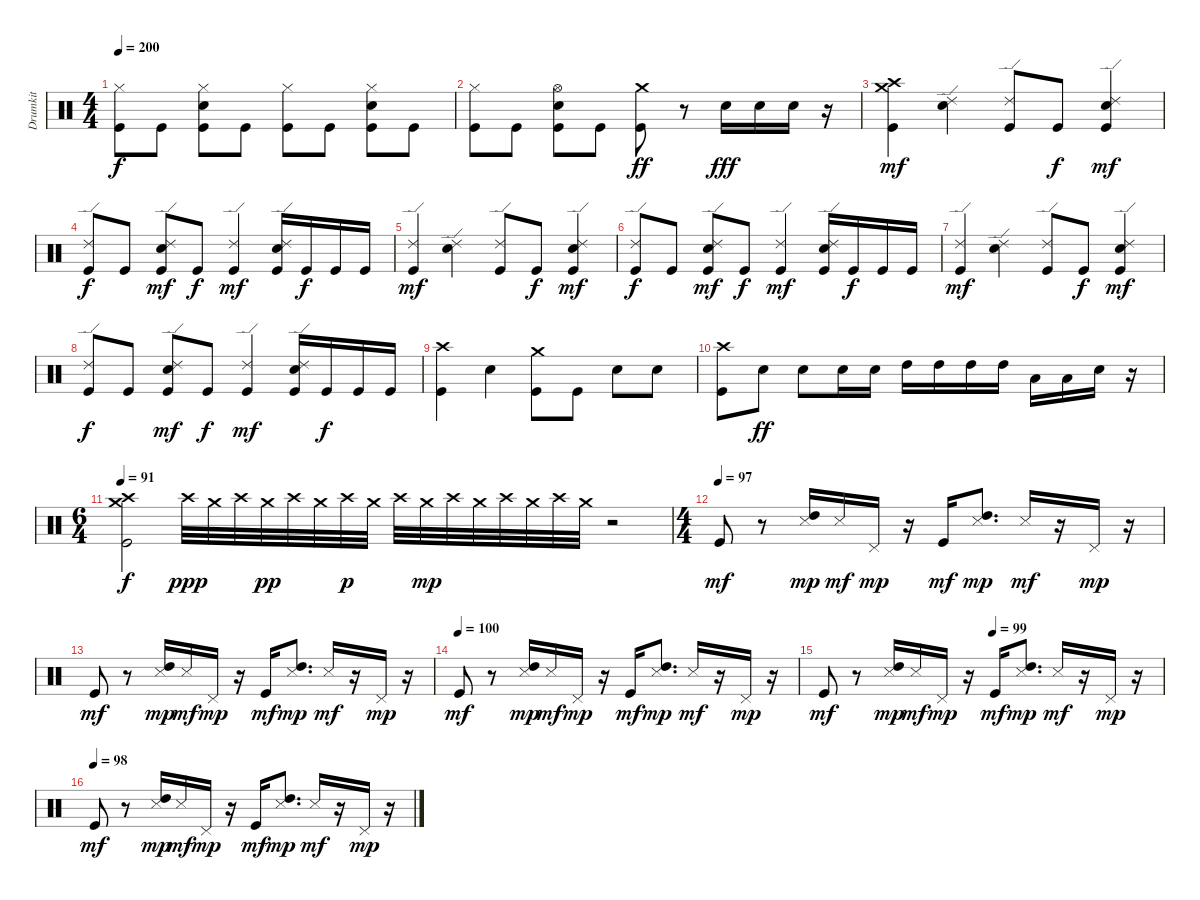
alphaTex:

\track ("Drumkit" "Drumkit") {instrument percussion}
\staff {score}
\articulation defaults
\ts (4 4)
\tempo 200
\clef neutral
\ks c
("Hi-Hat (closed)" "Kick (hit)").8{dy f} "Kick (hit)".8 ("Hi-Hat (closed)" "Snare (hit) 2" "Kick (hit)").8 "Kick (hit)".8 ("Hi-Hat (closed)" "Kick (hit)").8 "Kick (hit)".8 ("Hi-Hat (closed)" "Snare (hit) 2" "Kick (hit)").8 "Kick (hit)".8 |
("Hi-Hat (closed)" "Kick (hit)").8 "Kick (hit)".8 ("Hi-Hat (open)" "Snare (hit) 2" "Kick (hit)").8 "Kick (hit)".8 ("Crash medium (hit)" "Kick (hit)").8{dy ff} r.8 "Snare (hit) 2".16{dy fff} "Snare (hit) 2".16 "Snare (hit) 2".16 r.16 |
("Crash high (hit)" "Crash medium (hit)" "Kick (hit)").4{dy mf} ("Ride (edge) 2" "Snare (hit) 2").4 ("Ride (edge) 2" "Kick (hit)").8 "Kick (hit)".8{dy f} ("Ride (edge) 2" "Snare (hit) 2" "Kick (hit)").4{dy mf} |
("Ride (edge) 2" "Kick (hit)").8{dy f} "Kick (hit)".8 ("Ride (edge) 2" "Snare (hit) 2" "Kick (hit)").8{dy mf} "Kick (hit)".8{dy f} ("Ride (edge) 2" "Kick (hit)").4{dy mf} ("Ride (edge) 2" "Snare (hit) 2" "Kick (hit)").16 "Kick (hit)".16{dy f} "Kick (hit)".16 "Kick (hit)".16 |
("Ride (edge) 2" "Kick (hit)").4{dy mf} ("Ride (edge) 2" "Snare (hit) 2").4 ("Ride (edge) 2" "Kick (hit)").8 "Kick (hit)".8{dy f} ("Ride (edge) 2" "Snare (hit) 2" "Kick (hit)").4{dy mf} |
("Ride (edge) 2" "Kick (hit)").8{dy f} "Kick (hit)".8 ("Ride (edge) 2" "Snare (hit) 2" "Kick (hit)").8{dy mf} "Kick (hit)".8{dy f} ("Ride (edge) 2" "Kick (hit)").4{dy mf} ("Ride (edge) 2" "Snare (hit) 2" "Kick (hit)").16 "Kick (hit)".16{dy f} "Kick (hit)".16 "Kick (hit)".16 |
("Ride (edge) 2" "Kick (hit)").4{dy mf} ("Ride (edge) 2" "Snare (hit) 2").4 ("Ride (edge) 2" "Kick (hit)").8 "Kick (hit)".8{dy f} ("Ride (edge) 2" "Snare (hit) 2" "Kick (hit)").4{dy mf} |
("Ride (edge) 2" "Kick (hit)").8{dy f} "Kick (hit)".8 ("Ride (edge) 2" "Snare (hit) 2" "Kick (hit)").8{dy mf} "Kick (hit)".8{dy f} ("Ride (edge) 2" "Kick (hit)").4{dy mf} ("Ride (edge) 2" "Snare (hit) 2" "Kick (hit)").16 "Kick (hit)".16{dy f} "Kick (hit)".16 "Kick (hit)".16 |
("Crash high (hit)" "Kick (hit)").4 "Snare (hit) 2".4 ("Crash medium (hit)" "Kick (hit)").8 "Kick (hit)".8 "Snare (hit) 2".8 "Snare (hit) 2".8 |
("Crash high (hit)" "Kick (hit)").8 "Snare (hit) 2".8{dy ff} "Snare (hit) 2".8 "Snare (hit) 2".16 "Snare (hit) 2".16 "High Tom (hit)".16 "High Tom (hit)".16 "High Tom (hit)".16 "High Tom (hit)".16 "Low Tom (hit)".16 "Low Tom (hit)".16 "Snare (hit) 2".16 r.16 |
\ts (6 4)
\tempo 91
("Crash high (hit)" "Crash medium (hit)" "Kick (hit)").2{dy f} "Crash high (hit)".32{dy ppp} "Crash medium (hit)".32 "Crash high (hit)".32 "Crash medium (hit)".32{dy pp} "Crash high (hit)".32 "Crash medium (hit)".32 "Crash high (hit)".32{dy p} "Crash medium (hit)".32 "Crash high (hit)".32 "Crash medium (hit)".32{dy mp} "Crash high (hit)".32 "Crash medium (hit)".32 "Crash high (hit)".32 "Crash medium (hit)".32 "Crash high (hit)".32 "Crash medium (hit)".32 r.2 |
\ts (4 4)
\tempo (97)
"Kick (hit)".8{dy mf} r.8 ("High Tom (hit)" "Snare (side stick) 3").16{dy mp} "Snare (side stick) 3".16{dy mf} "Pedal Hi-Hat (hit)".16{dy mp} r.16 "Kick (hit)".16{dy mf} ("High Tom (hit)" "Snare (side stick) 3").8{d dy mp} "Snare (side stick) 3".16{dy mf} r.16 "Pedal Hi-Hat (hit)".16{dy mp} r.16 |
"Kick (hit)".8{dy mf} r.8 ("High Tom (hit)" "Snare (side stick) 3").16{dy mp} "Snare (side stick) 3".16{dy mf} "Pedal Hi-Hat (hit)".16{dy mp} r.16 "Kick (hit)".16{dy mf} ("High Tom (hit)" "Snare (side stick) 3").8{d dy mp} "Snare (side stick) 3".16{dy mf} r.16 "Pedal Hi-Hat (hit)".16{dy mp} r.16 |
\tempo (100)
"Kick (hit)".8{dy mf} r.8 ("High Tom (hit)" "Snare (side stick) 3").16{dy mp} "Snare (side stick) 3".16{dy mf} "Pedal Hi-Hat (hit)".16{dy mp} r.16 "Kick (hit)".16{dy mf} ("High Tom (hit)" "Snare (side stick) 3").8{d dy mp} "Snare (side stick) 3".16{dy mf} r.16 "Pedal Hi-Hat (hit)".16{dy mp} r.16 |
\tempo (99 0.5)
"Kick (hit)".8{dy mf} r.8 ("High Tom (hit)" "Snare (side stick) 3").16{dy mp} "Snare (side stick) 3".16{dy mf} "Pedal Hi-Hat (hit)".16{dy mp} r.16 "Kick (hit)".16{dy mf} ("High Tom (hit)" "Snare (side stick) 3").8{d dy mp} "Snare (side stick) 3".16{dy mf} r.16 "Pedal Hi-Hat (hit)".16{dy mp} r.16 |
\tempo (98)
"Kick (hit)".8{dy mf} r.8 ("High Tom (hit)" "Snare (side stick) 3").16{dy mp} "Snare (side stick) 3".16{dy mf} "Pedal Hi-Hat (hit)".16{dy mp} r.16 "Kick (hit)".16{dy mf} ("High Tom (hit)" "Snare (side stick) 3").8{d dy mp} "Snare (side stick) 3".16{dy mf} r.16 "Pedal Hi-Hat (hit)".16{dy mp} r.16
